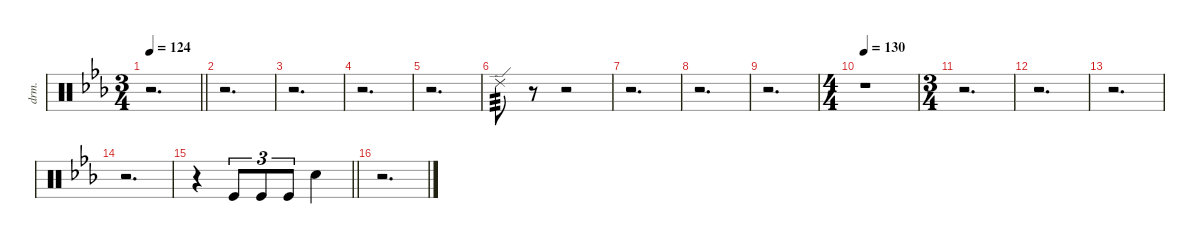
\defaultSystemsLayout 4
\hideDynamics
\bracketExtendMode nobrackets
\otherSystemsTrackNameOrientation horizontal
\track ("Drums" "drm.") {defaultSystemsLayout 4 instrument percussion}
\staff {score}
\articulation defaults
\ts (3 4)
\tempo 124
\clef neutral
\barLineRight lightlight
\ks eb
r.2{d dy f beam Down} |
r.2{d beam Down} |
r.2{d beam Down} |
r.2{d beam Down} |
r.2{d beam Down} |
"Ride (edge) 2"{acc forcenatural}.8{tp 3 beam Down} r.8{beam Down} r.2{beam Down} |
r.2{d beam Down} |
r.2{d beam Down} |
r.2{d beam Down} |
\ts (4 4)
\beaming (8 2 2 2 2)
\tempo 130
r.1{beam Down} |
\ts (3 4)
\beaming (8 2 2 2)
r.2{d beam Down} |
r.2{d beam Down} |
r.2{d beam Down} |
r.2{d beam Down} |
\barLineRight lightlight
r.4{beam Down} "Kick (hit)"{acc forcenatural}.8{tu (3 2) dy ff beam Up} "Kick (hit)"{acc forcenatural}.8{tu (3 2) beam Up} "Kick (hit)"{acc forcenatural}.8{tu (3 2) beam Up} "Snare (hit) 2"{acc forcenatural}.4{beam Down} |
r.2{d beam Down}
